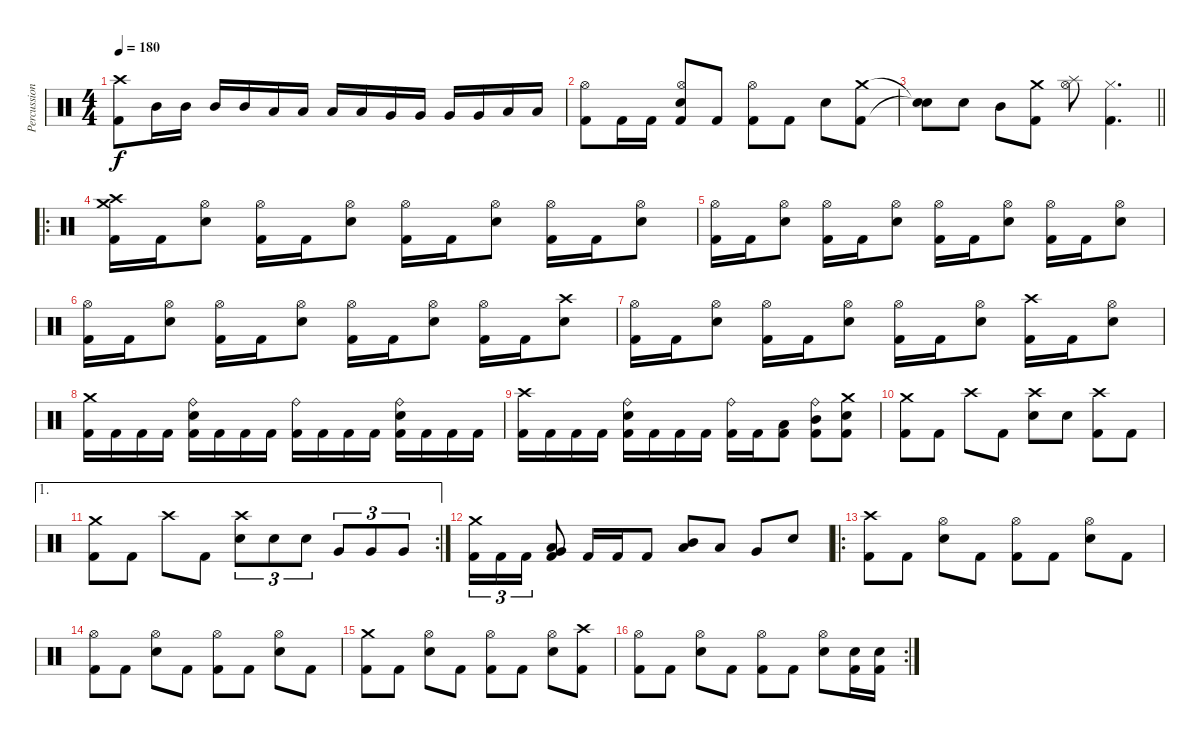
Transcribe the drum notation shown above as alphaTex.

\track ("Percussion" "Percussion") {instrument percussion}
\staff {score}
\articulation defaults
\ts (4 4)
\tempo 180
\clef neutral
\ks c
("Crash high (hit)" "Kick (hit) 2").8{dy f} "Mid Tom (hit)".16 "Mid Tom (hit)".16 "Mid Tom (hit)".16 "Mid Tom (hit)".16 "Low Tom (hit)".16 "Low Tom (hit)".16 "Low Tom (hit)".16 "Low Tom (hit)".16 "Very Low Tom (hit)".16 "Very Low Tom (hit)".16 "Very Low Tom (hit)".16 "Very Low Tom (hit)".16 "Low Floor Tom (hit)".16 "Low Floor Tom (hit)".16 |
("Hi-Hat (open)" "Kick (hit) 2").8 "Kick (hit) 2".16 "Kick (hit) 2".16 ("Hi-Hat (open)" "Electric Snare (hit)" "Kick (hit) 2").8 "Kick (hit) 2".8 ("Hi-Hat (open)" "Kick (hit) 2").8 "Kick (hit) 2".8 "Electric Snare (hit)".8 ("Crash medium (hit)" "Kick (hit) 2").8 |
\barLineRight lightlight
("Snare (hit)"{t} "Snare (hit)"{t}).8 "Electric Snare (hit)".8 "Mid Tom (hit)".8 ("Crash medium (hit)" "Kick (hit) 2").8 ("Splash (hit)" "Hi-Hat (open)").8 ("Hi-Hat (closed)" "Kick (hit) 2").4{d} |
\ro
("Crash medium (hit)" "Crash high (hit)" "Kick (hit) 2").16 "Kick (hit) 2".16 ("Hi-Hat (open)" "Electric Snare (hit)").8 ("Hi-Hat (open)" "Kick (hit) 2").16 "Kick (hit) 2".16 ("Hi-Hat (open)" "Electric Snare (hit)").8 ("Hi-Hat (open)" "Kick (hit) 2").16 "Kick (hit) 2".16 ("Hi-Hat (open)" "Electric Snare (hit)").8 ("Hi-Hat (open)" "Kick (hit) 2").16 "Kick (hit) 2".16 ("Hi-Hat (open)" "Electric Snare (hit)").8 |
("Hi-Hat (open)" "Kick (hit) 2").16 "Kick (hit) 2".16 ("Hi-Hat (open)" "Electric Snare (hit)").8 ("Hi-Hat (open)" "Kick (hit) 2").16 "Kick (hit) 2".16 ("Hi-Hat (open)" "Electric Snare (hit)").8 ("Hi-Hat (open)" "Kick (hit) 2").16 "Kick (hit) 2".16 ("Hi-Hat (open)" "Electric Snare (hit)").8 ("Hi-Hat (open)" "Kick (hit) 2").16 "Kick (hit) 2".16 ("Hi-Hat (open)" "Electric Snare (hit)").8 |
("Hi-Hat (open)" "Kick (hit) 2").16 "Kick (hit) 2".16 ("Hi-Hat (open)" "Electric Snare (hit)").8 ("Hi-Hat (open)" "Kick (hit) 2").16 "Kick (hit) 2".16 ("Hi-Hat (open)" "Electric Snare (hit)").8 ("Hi-Hat (open)" "Kick (hit) 2").16 "Kick (hit) 2".16 ("Hi-Hat (open)" "Electric Snare (hit)").8 ("Hi-Hat (open)" "Kick (hit) 2").16 "Kick (hit) 2".16 ("Crash high (hit)" "Electric Snare (hit)").8 |
("Hi-Hat (open)" "Kick (hit) 2").16 "Kick (hit) 2".16 ("Hi-Hat (open)" "Electric Snare (hit)").8 ("Hi-Hat (open)" "Kick (hit) 2").16 "Kick (hit) 2".16 ("Hi-Hat (open)" "Electric Snare (hit)").8 ("Hi-Hat (open)" "Kick (hit) 2").16 "Kick (hit) 2".16 ("Hi-Hat (open)" "Electric Snare (hit)").8 ("Crash high (hit)" "Kick (hit) 2").16 "Kick (hit) 2".16 ("Hi-Hat (open)" "Electric Snare (hit)").8 |
("Crash medium (hit)" "Kick (hit) 2").16 "Kick (hit) 2".16 "Kick (hit) 2".16 "Kick (hit) 2".16 ("Ride (bell)" "Electric Snare (hit)" "Kick (hit) 2").16 "Kick (hit) 2".16 "Kick (hit) 2".16 "Kick (hit) 2".16 ("Ride (bell)" "Kick (hit) 2").16 "Kick (hit) 2".16 "Kick (hit) 2".16 "Kick (hit) 2".16 ("Ride (bell)" "Electric Snare (hit)" "Kick (hit) 2").16 "Kick (hit) 2".16 "Kick (hit) 2".16 "Kick (hit) 2".16 |
("Crash high (hit)" "Kick (hit) 2").16 "Kick (hit) 2".16 "Kick (hit) 2".16 "Kick (hit) 2".16 ("Ride (bell)" "Electric Snare (hit)" "Kick (hit) 2").16 "Kick (hit) 2".16 "Kick (hit) 2".16 "Kick (hit) 2".16 ("Ride (bell)" "Kick (hit) 2").16 "Kick (hit) 2".16 ("Low Tom (hit)" "Kick (hit) 2").8 ("Ride (bell)" "Mid Tom (hit)" "Kick (hit) 2").8 ("Crash medium (hit)" "Electric Snare (hit)" "Kick (hit) 2").8 |
("Crash medium (hit)" "Kick (hit) 2").8 "Kick (hit) 2".8 "Crash high (hit)".8 "Kick (hit) 2".8 ("Crash high (hit)" "Electric Snare (hit)").8 "Electric Snare (hit)".8 ("Crash high (hit)" "Kick (hit) 2").8 "Kick (hit) 2".8 |
\ae 1
\rc 2
("Crash medium (hit)" "Kick (hit) 2").8 "Kick (hit) 2".8 "Crash high (hit)".8 "Kick (hit) 2".8 ("Crash high (hit)" "Electric Snare (hit)").8{tu (3 2)} "Electric Snare (hit)".8{tu (3 2)} "Electric Snare (hit)".8{tu (3 2)} "Very Low Tom (hit)".8{tu (3 2)} "Very Low Tom (hit)".8{tu (3 2)} "Very Low Tom (hit)".8{tu (3 2)} |
("Crash medium (hit)" "Kick (hit) 2").16{tu (3 2)} "Kick (hit) 2".16{tu (3 2)} "Kick (hit) 2".16{tu (3 2)} ("Low Floor Tom (hit)" "Very Low Tom (hit)" "Kick (hit) 2").8 "Kick (hit) 2".16 "Kick (hit) 2".16 "Kick (hit) 2".8 ("Mid Tom (hit)" "Low Tom (hit)").8 "Low Tom (hit)".8 "Very Low Tom (hit)".8 "Electric Snare (hit)".8 |
\ro
("Crash high (hit)" "Kick (hit) 2").8 "Kick (hit) 2".8 ("Hi-Hat (open)" "Electric Snare (hit)").8 "Kick (hit) 2".8 ("Hi-Hat (open)" "Kick (hit) 2").8 "Kick (hit) 2".8 ("Hi-Hat (open)" "Electric Snare (hit)").8 "Kick (hit) 2".8 |
("Hi-Hat (open)" "Kick (hit) 2").8 "Kick (hit) 2".8 ("Hi-Hat (open)" "Electric Snare (hit)").8 "Kick (hit) 2".8 ("Hi-Hat (open)" "Kick (hit) 2").8 "Kick (hit) 2".8 ("Hi-Hat (open)" "Electric Snare (hit)").8 "Kick (hit) 2".8 |
("Crash medium (hit)" "Kick (hit) 2").8 "Kick (hit) 2".8 ("Hi-Hat (open)" "Electric Snare (hit)").8 "Kick (hit) 2".8 ("Hi-Hat (open)" "Kick (hit) 2").8 "Kick (hit) 2".8 ("Hi-Hat (open)" "Electric Snare (hit)").8 ("Crash high (hit)" "Kick (hit) 2").8 |
\rc 2
("Hi-Hat (open)" "Kick (hit) 2").8 "Kick (hit) 2".8 ("Hi-Hat (open)" "Electric Snare (hit)").8 "Kick (hit) 2".8 ("Hi-Hat (open)" "Kick (hit) 2").8 "Kick (hit) 2".8 ("Hi-Hat (open)" "Electric Snare (hit)").8 ("Electric Snare (hit)" "Kick (hit) 2").16 ("Electric Snare (hit)" "Kick (hit) 2").16
